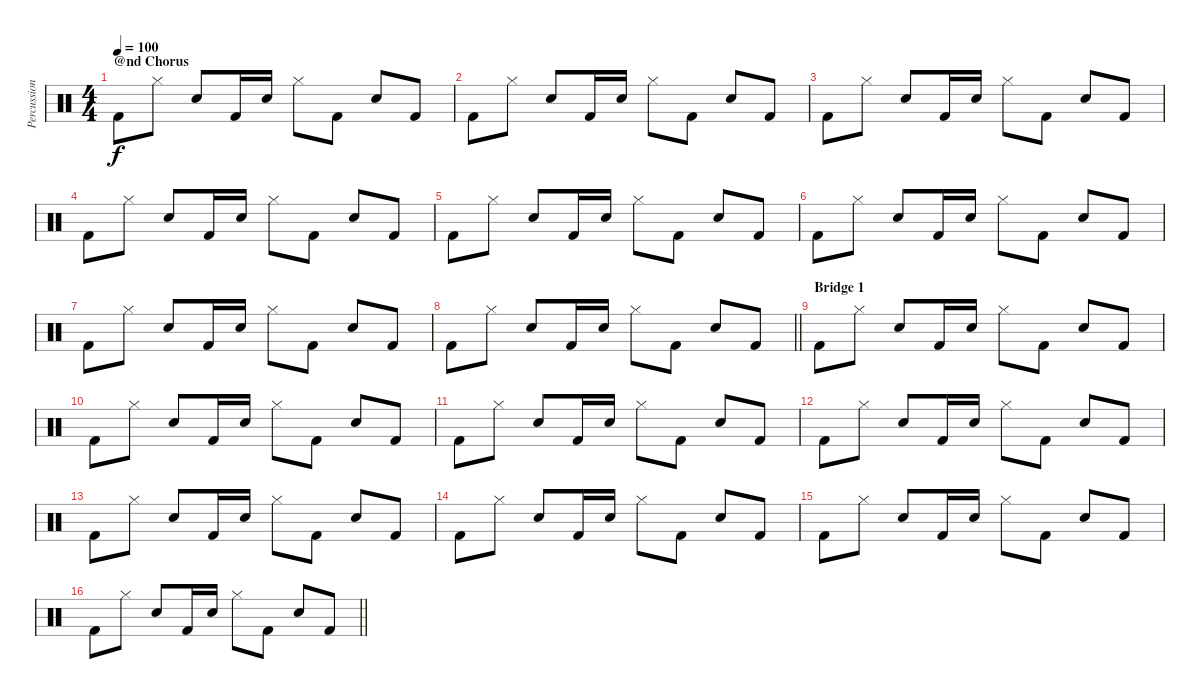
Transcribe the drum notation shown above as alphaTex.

\track ("Percussion" "Percussion") {instrument percussion}
\staff {score}
\articulation defaults
\ts (4 4)
\section ("" "@nd Chorus")
\tempo 100
\clef neutral
\ks c "Kick (hit) 2".8{dy f} "Hi-Hat (closed)".8 "Electric Snare (hit)".8 "Kick (hit) 2".16 "Electric Snare (hit)".16 "Hi-Hat (closed)".8 "Kick (hit) 2".8 "Electric Snare (hit)".8 "Kick (hit) 2".8
|
"Kick (hit) 2".8 "Hi-Hat (closed)".8 "Electric Snare (hit)".8 "Kick (hit) 2".16 "Electric Snare (hit)".16 "Hi-Hat (closed)".8 "Kick (hit) 2".8 "Electric Snare (hit)".8 "Kick (hit) 2".8 |
"Kick (hit) 2".8 "Hi-Hat (closed)".8 "Electric Snare (hit)".8 "Kick (hit) 2".16 "Electric Snare (hit)".16 "Hi-Hat (closed)".8 "Kick (hit) 2".8 "Electric Snare (hit)".8 "Kick (hit) 2".8 |
"Kick (hit) 2".8 "Hi-Hat (closed)".8 "Electric Snare (hit)".8 "Kick (hit) 2".16 "Electric Snare (hit)".16 "Hi-Hat (closed)".8 "Kick (hit) 2".8 "Electric Snare (hit)".8 "Kick (hit) 2".8 |
"Kick (hit) 2".8 "Hi-Hat (closed)".8 "Electric Snare (hit)".8 "Kick (hit) 2".16 "Electric Snare (hit)".16 "Hi-Hat (closed)".8 "Kick (hit) 2".8 "Electric Snare (hit)".8 "Kick (hit) 2".8 |
"Kick (hit) 2".8 "Hi-Hat (closed)".8 "Electric Snare (hit)".8 "Kick (hit) 2".16 "Electric Snare (hit)".16 "Hi-Hat (closed)".8 "Kick (hit) 2".8 "Electric Snare (hit)".8 "Kick (hit) 2".8 |
"Kick (hit) 2".8 "Hi-Hat (closed)".8 "Electric Snare (hit)".8 "Kick (hit) 2".16 "Electric Snare (hit)".16 "Hi-Hat (closed)".8 "Kick (hit) 2".8 "Electric Snare (hit)".8 "Kick (hit) 2".8 |
\barLineRight lightlight "Kick (hit) 2".8 "Hi-Hat (closed)".8 "Electric Snare (hit)".8 "Kick (hit) 2".16 "Electric Snare (hit)".16 "Hi-Hat (closed)".8 "Kick (hit) 2".8 "Electric Snare (hit)".8 "Kick (hit) 2".8
|
\section ("" "Bridge 1")
"Kick (hit) 2".8 "Hi-Hat (closed)".8 "Electric Snare (hit)".8 "Kick (hit) 2".16 "Electric Snare (hit)".16 "Hi-Hat (closed)".8 "Kick (hit) 2".8 "Electric Snare (hit)".8 "Kick (hit) 2".8 |
"Kick (hit) 2".8 "Hi-Hat (closed)".8 "Electric Snare (hit)".8 "Kick (hit) 2".16 "Electric Snare (hit)".16 "Hi-Hat (closed)".8 "Kick (hit) 2".8 "Electric Snare (hit)".8 "Kick (hit) 2".8 |
"Kick (hit) 2".8 "Hi-Hat (closed)".8 "Electric Snare (hit)".8 "Kick (hit) 2".16 "Electric Snare (hit)".16 "Hi-Hat (closed)".8 "Kick (hit) 2".8 "Electric Snare (hit)".8 "Kick (hit) 2".8 |
"Kick (hit) 2".8 "Hi-Hat (closed)".8 "Electric Snare (hit)".8 "Kick (hit) 2".16 "Electric Snare (hit)".16 "Hi-Hat (closed)".8 "Kick (hit) 2".8 "Electric Snare (hit)".8 "Kick (hit) 2".8 |
"Kick (hit) 2".8 "Hi-Hat (closed)".8 "Electric Snare (hit)".8 "Kick (hit) 2".16 "Electric Snare (hit)".16 "Hi-Hat (closed)".8 "Kick (hit) 2".8 "Electric Snare (hit)".8 "Kick (hit) 2".8 |
"Kick (hit) 2".8 "Hi-Hat (closed)".8 "Electric Snare (hit)".8 "Kick (hit) 2".16 "Electric Snare (hit)".16 "Hi-Hat (closed)".8 "Kick (hit) 2".8 "Electric Snare (hit)".8 "Kick (hit) 2".8 |
"Kick (hit) 2".8 "Hi-Hat (closed)".8 "Electric Snare (hit)".8 "Kick (hit) 2".16 "Electric Snare (hit)".16 "Hi-Hat (closed)".8 "Kick (hit) 2".8 "Electric Snare (hit)".8 "Kick (hit) 2".8 |
\barLineRight lightlight "Kick (hit) 2".8 "Hi-Hat (closed)".8 "Electric Snare (hit)".8 "Kick (hit) 2".16 "Electric Snare (hit)".16 "Hi-Hat (closed)".8 "Kick (hit) 2".8 "Electric Snare (hit)".8 "Kick (hit) 2".8
